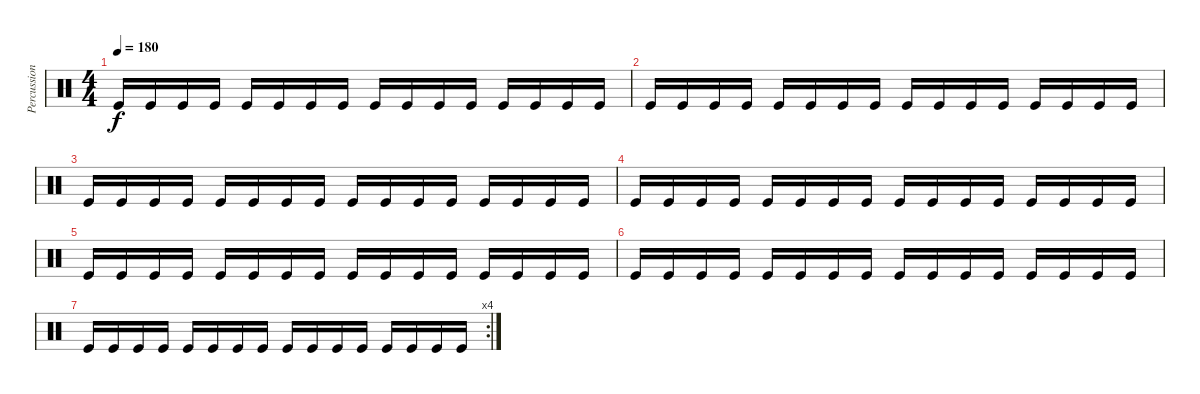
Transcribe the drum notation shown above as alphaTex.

\track ("Percussion" "Percussion") {instrument percussion}
\staff {score}
\articulation defaults
\ts (4 4)
\tempo 180
\clef neutral
\ks c "Kick (hit)".16{dy f} "Kick (hit)".16 "Kick (hit)".16 "Kick (hit)".16 "Kick (hit)".16 "Kick (hit)".16 "Kick (hit)".16 "Kick (hit)".16 "Kick (hit)".16 "Kick (hit)".16 "Kick (hit)".16 "Kick (hit)".16 "Kick (hit)".16 "Kick (hit)".16 "Kick (hit)".16 "Kick (hit)".16
|
"Kick (hit)".16 "Kick (hit)".16 "Kick (hit)".16 "Kick (hit)".16 "Kick (hit)".16 "Kick (hit)".16 "Kick (hit)".16 "Kick (hit)".16 "Kick (hit)".16 "Kick (hit)".16 "Kick (hit)".16 "Kick (hit)".16 "Kick (hit)".16 "Kick (hit)".16 "Kick (hit)".16 "Kick (hit)".16 |
"Kick (hit)".16 "Kick (hit)".16 "Kick (hit)".16 "Kick (hit)".16 "Kick (hit)".16 "Kick (hit)".16 "Kick (hit)".16 "Kick (hit)".16 "Kick (hit)".16 "Kick (hit)".16 "Kick (hit)".16 "Kick (hit)".16 "Kick (hit)".16 "Kick (hit)".16 "Kick (hit)".16 "Kick (hit)".16 |
"Kick (hit)".16 "Kick (hit)".16 "Kick (hit)".16 "Kick (hit)".16 "Kick (hit)".16 "Kick (hit)".16 "Kick (hit)".16 "Kick (hit)".16 "Kick (hit)".16 "Kick (hit)".16 "Kick (hit)".16 "Kick (hit)".16 "Kick (hit)".16 "Kick (hit)".16 "Kick (hit)".16 "Kick (hit)".16 |
"Kick (hit)".16 "Kick (hit)".16 "Kick (hit)".16 "Kick (hit)".16 "Kick (hit)".16 "Kick (hit)".16 "Kick (hit)".16 "Kick (hit)".16 "Kick (hit)".16 "Kick (hit)".16 "Kick (hit)".16 "Kick (hit)".16 "Kick (hit)".16 "Kick (hit)".16 "Kick (hit)".16 "Kick (hit)".16 |
"Kick (hit)".16 "Kick (hit)".16 "Kick (hit)".16 "Kick (hit)".16 "Kick (hit)".16 "Kick (hit)".16 "Kick (hit)".16 "Kick (hit)".16 "Kick (hit)".16 "Kick (hit)".16 "Kick (hit)".16 "Kick (hit)".16 "Kick (hit)".16 "Kick (hit)".16 "Kick (hit)".16 "Kick (hit)".16 |
\rc 4 "Kick (hit)".16 "Kick (hit)".16 "Kick (hit)".16 "Kick (hit)".16 "Kick (hit)".16 "Kick (hit)".16 "Kick (hit)".16 "Kick (hit)".16 "Kick (hit)".16 "Kick (hit)".16 "Kick (hit)".16 "Kick (hit)".16 "Kick (hit)".16 "Kick (hit)".16 "Kick (hit)".16 "Kick (hit)".16
